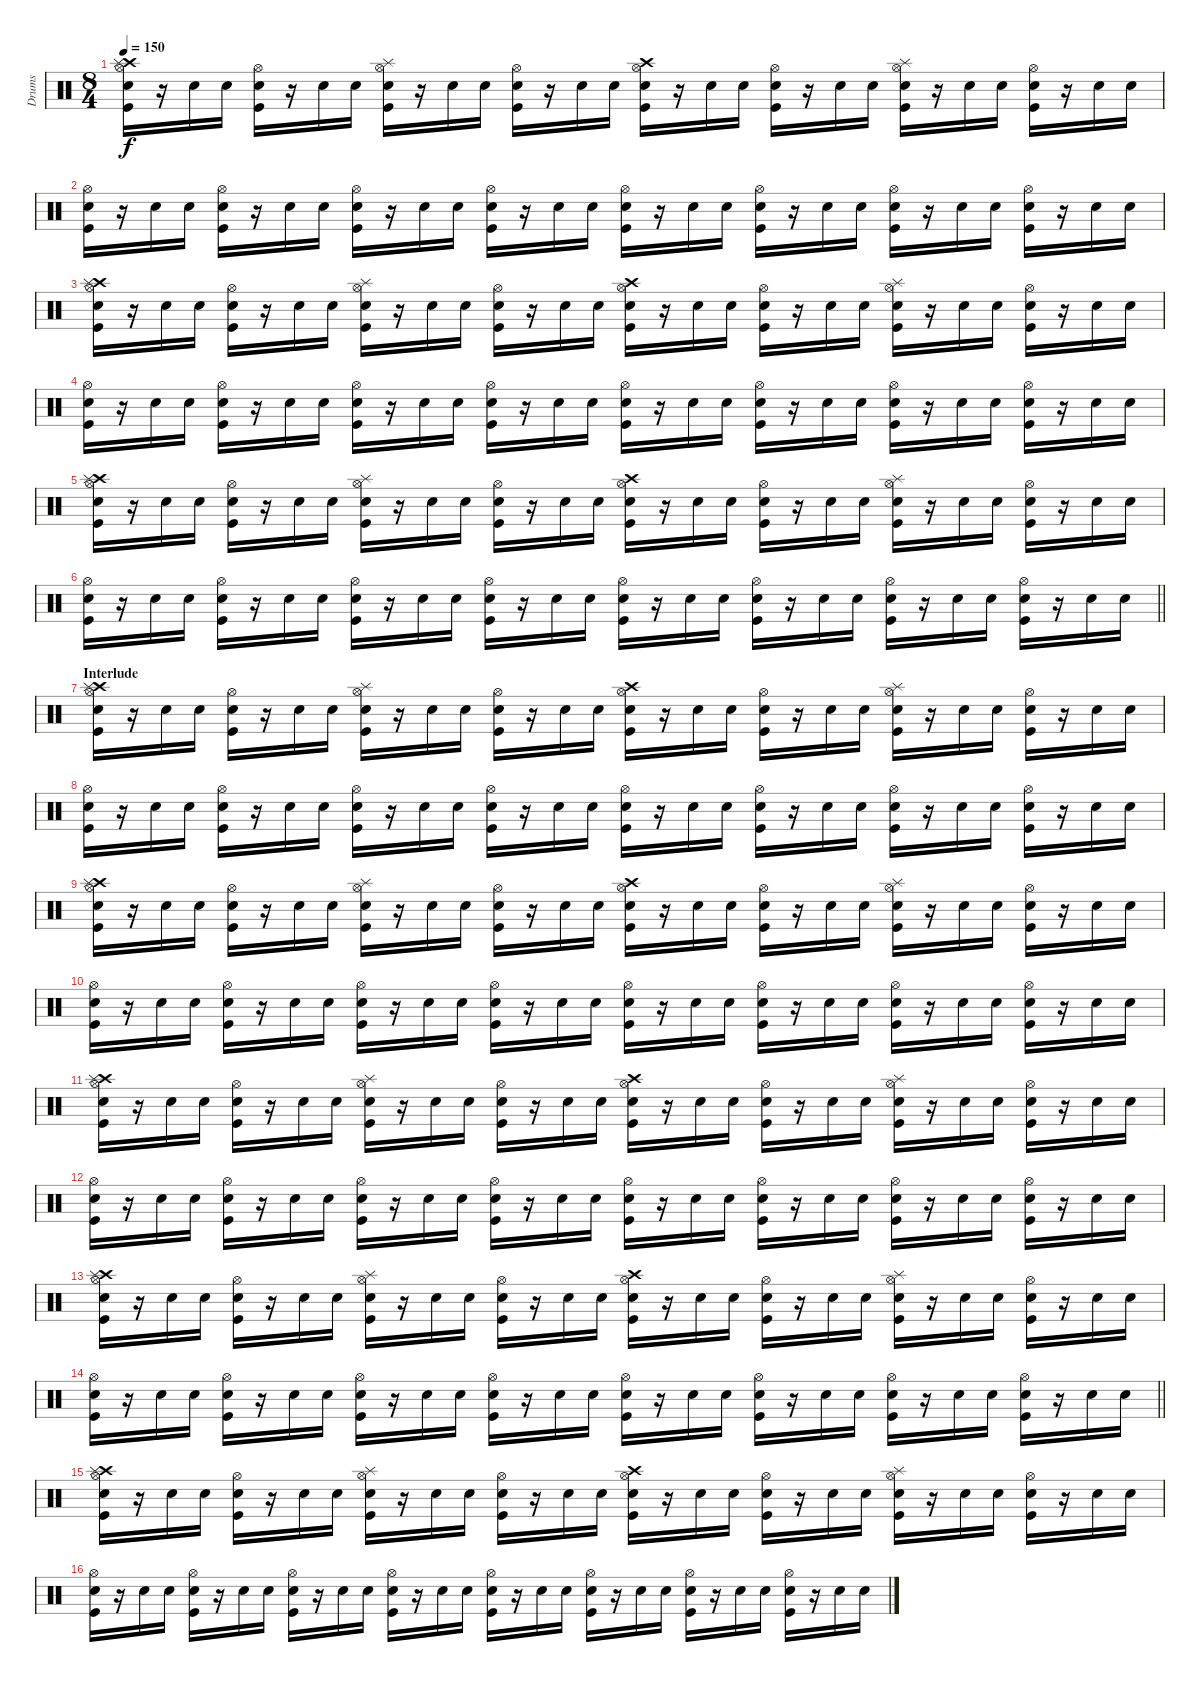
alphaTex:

\track ("Drums" "Drums") {instrument percussion}
\staff {score}
\articulation defaults
\ts (8 4)
\tempo 150
\clef neutral
\ks c
("Crash high (hit)" "Splash (hit)" "Hi-Hat (open)" "Electric Snare (hit)" "Kick (hit)").16{dy f} r.16 "Electric Snare (hit)".16 "Electric Snare (hit)".16 ("Hi-Hat (open)" "Electric Snare (hit)" "Kick (hit)").16 r.16 "Electric Snare (hit)".16 "Electric Snare (hit)".16 ("Splash (hit)" "Hi-Hat (open)" "Electric Snare (hit)" "Kick (hit)").16 r.16 "Electric Snare (hit)".16 "Electric Snare (hit)".16 ("Hi-Hat (open)" "Electric Snare (hit)" "Kick (hit)").16 r.16 "Electric Snare (hit)".16 "Electric Snare (hit)".16 ("Crash high (hit)" "Hi-Hat (open)" "Electric Snare (hit)" "Kick (hit)").16 r.16 "Electric Snare (hit)".16 "Electric Snare (hit)".16 ("Hi-Hat (open)" "Electric Snare (hit)" "Kick (hit)").16 r.16 "Electric Snare (hit)".16 "Electric Snare (hit)".16 ("Splash (hit)" "Hi-Hat (open)" "Electric Snare (hit)" "Kick (hit)").16 r.16 "Electric Snare (hit)".16 "Electric Snare (hit)".16 ("Hi-Hat (open)" "Electric Snare (hit)" "Kick (hit)").16 r.16 "Electric Snare (hit)".16 "Electric Snare (hit)".16 |
("Hi-Hat (open)" "Electric Snare (hit)" "Kick (hit)").16 r.16 "Electric Snare (hit)".16 "Electric Snare (hit)".16 ("Hi-Hat (open)" "Electric Snare (hit)" "Kick (hit)").16 r.16 "Electric Snare (hit)".16 "Electric Snare (hit)".16 ("Hi-Hat (open)" "Electric Snare (hit)" "Kick (hit)").16 r.16 "Electric Snare (hit)".16 "Electric Snare (hit)".16 ("Hi-Hat (open)" "Electric Snare (hit)" "Kick (hit)").16 r.16 "Electric Snare (hit)".16 "Electric Snare (hit)".16 ("Hi-Hat (open)" "Electric Snare (hit)" "Kick (hit)").16 r.16 "Electric Snare (hit)".16 "Electric Snare (hit)".16 ("Hi-Hat (open)" "Electric Snare (hit)" "Kick (hit)").16 r.16 "Electric Snare (hit)".16 "Electric Snare (hit)".16 ("Hi-Hat (open)" "Electric Snare (hit)" "Kick (hit)").16 r.16 "Electric Snare (hit)".16 "Electric Snare (hit)".16 ("Hi-Hat (open)" "Electric Snare (hit)" "Kick (hit)").16 r.16 "Electric Snare (hit)".16 "Electric Snare (hit)".16 |
("Crash high (hit)" "Splash (hit)" "Hi-Hat (open)" "Electric Snare (hit)" "Kick (hit)").16 r.16 "Electric Snare (hit)".16 "Electric Snare (hit)".16 ("Hi-Hat (open)" "Electric Snare (hit)" "Kick (hit)").16 r.16 "Electric Snare (hit)".16 "Electric Snare (hit)".16 ("Splash (hit)" "Hi-Hat (open)" "Electric Snare (hit)" "Kick (hit)").16 r.16 "Electric Snare (hit)".16 "Electric Snare (hit)".16 ("Hi-Hat (open)" "Electric Snare (hit)" "Kick (hit)").16 r.16 "Electric Snare (hit)".16 "Electric Snare (hit)".16 ("Crash high (hit)" "Hi-Hat (open)" "Electric Snare (hit)" "Kick (hit)").16 r.16 "Electric Snare (hit)".16 "Electric Snare (hit)".16 ("Hi-Hat (open)" "Electric Snare (hit)" "Kick (hit)").16 r.16 "Electric Snare (hit)".16 "Electric Snare (hit)".16 ("Splash (hit)" "Hi-Hat (open)" "Electric Snare (hit)" "Kick (hit)").16 r.16 "Electric Snare (hit)".16 "Electric Snare (hit)".16 ("Hi-Hat (open)" "Electric Snare (hit)" "Kick (hit)").16 r.16 "Electric Snare (hit)".16 "Electric Snare (hit)".16 |
("Hi-Hat (open)" "Electric Snare (hit)" "Kick (hit)").16 r.16 "Electric Snare (hit)".16 "Electric Snare (hit)".16 ("Hi-Hat (open)" "Electric Snare (hit)" "Kick (hit)").16 r.16 "Electric Snare (hit)".16 "Electric Snare (hit)".16 ("Hi-Hat (open)" "Electric Snare (hit)" "Kick (hit)").16 r.16 "Electric Snare (hit)".16 "Electric Snare (hit)".16 ("Hi-Hat (open)" "Electric Snare (hit)" "Kick (hit)").16 r.16 "Electric Snare (hit)".16 "Electric Snare (hit)".16 ("Hi-Hat (open)" "Electric Snare (hit)" "Kick (hit)").16 r.16 "Electric Snare (hit)".16 "Electric Snare (hit)".16 ("Hi-Hat (open)" "Electric Snare (hit)" "Kick (hit)").16 r.16 "Electric Snare (hit)".16 "Electric Snare (hit)".16 ("Hi-Hat (open)" "Electric Snare (hit)" "Kick (hit)").16 r.16 "Electric Snare (hit)".16 "Electric Snare (hit)".16 ("Hi-Hat (open)" "Electric Snare (hit)" "Kick (hit)").16 r.16 "Electric Snare (hit)".16 "Electric Snare (hit)".16 |
("Crash high (hit)" "Splash (hit)" "Hi-Hat (open)" "Electric Snare (hit)" "Kick (hit)").16 r.16 "Electric Snare (hit)".16 "Electric Snare (hit)".16 ("Hi-Hat (open)" "Electric Snare (hit)" "Kick (hit)").16 r.16 "Electric Snare (hit)".16 "Electric Snare (hit)".16 ("Splash (hit)" "Hi-Hat (open)" "Electric Snare (hit)" "Kick (hit)").16 r.16 "Electric Snare (hit)".16 "Electric Snare (hit)".16 ("Hi-Hat (open)" "Electric Snare (hit)" "Kick (hit)").16 r.16 "Electric Snare (hit)".16 "Electric Snare (hit)".16 ("Crash high (hit)" "Hi-Hat (open)" "Electric Snare (hit)" "Kick (hit)").16 r.16 "Electric Snare (hit)".16 "Electric Snare (hit)".16 ("Hi-Hat (open)" "Electric Snare (hit)" "Kick (hit)").16 r.16 "Electric Snare (hit)".16 "Electric Snare (hit)".16 ("Splash (hit)" "Hi-Hat (open)" "Electric Snare (hit)" "Kick (hit)").16 r.16 "Electric Snare (hit)".16 "Electric Snare (hit)".16 ("Hi-Hat (open)" "Electric Snare (hit)" "Kick (hit)").16 r.16 "Electric Snare (hit)".16 "Electric Snare (hit)".16 |
\barLineRight lightlight
("Hi-Hat (open)" "Electric Snare (hit)" "Kick (hit)").16 r.16 "Electric Snare (hit)".16 "Electric Snare (hit)".16 ("Hi-Hat (open)" "Electric Snare (hit)" "Kick (hit)").16 r.16 "Electric Snare (hit)".16 "Electric Snare (hit)".16 ("Hi-Hat (open)" "Electric Snare (hit)" "Kick (hit)").16 r.16 "Electric Snare (hit)".16 "Electric Snare (hit)".16 ("Hi-Hat (open)" "Electric Snare (hit)" "Kick (hit)").16 r.16 "Electric Snare (hit)".16 "Electric Snare (hit)".16 ("Hi-Hat (open)" "Electric Snare (hit)" "Kick (hit)").16 r.16 "Electric Snare (hit)".16 "Electric Snare (hit)".16 ("Hi-Hat (open)" "Electric Snare (hit)" "Kick (hit)").16 r.16 "Electric Snare (hit)".16 "Electric Snare (hit)".16 ("Hi-Hat (open)" "Electric Snare (hit)" "Kick (hit)").16 r.16 "Electric Snare (hit)".16 "Electric Snare (hit)".16 ("Hi-Hat (open)" "Electric Snare (hit)" "Kick (hit)").16 r.16 "Electric Snare (hit)".16 "Electric Snare (hit)".16 |
\section ("" "Interlude")
("Crash high (hit)" "Splash (hit)" "Hi-Hat (open)" "Electric Snare (hit)" "Kick (hit)").16 r.16 "Electric Snare (hit)".16 "Electric Snare (hit)".16 ("Hi-Hat (open)" "Electric Snare (hit)" "Kick (hit)").16 r.16 "Electric Snare (hit)".16 "Electric Snare (hit)".16 ("Splash (hit)" "Hi-Hat (open)" "Electric Snare (hit)" "Kick (hit)").16 r.16 "Electric Snare (hit)".16 "Electric Snare (hit)".16 ("Hi-Hat (open)" "Electric Snare (hit)" "Kick (hit)").16 r.16 "Electric Snare (hit)".16 "Electric Snare (hit)".16 ("Crash high (hit)" "Hi-Hat (open)" "Electric Snare (hit)" "Kick (hit)").16 r.16 "Electric Snare (hit)".16 "Electric Snare (hit)".16 ("Hi-Hat (open)" "Electric Snare (hit)" "Kick (hit)").16 r.16 "Electric Snare (hit)".16 "Electric Snare (hit)".16 ("Splash (hit)" "Hi-Hat (open)" "Electric Snare (hit)" "Kick (hit)").16 r.16 "Electric Snare (hit)".16 "Electric Snare (hit)".16 ("Hi-Hat (open)" "Electric Snare (hit)" "Kick (hit)").16 r.16 "Electric Snare (hit)".16 "Electric Snare (hit)".16 |
("Hi-Hat (open)" "Electric Snare (hit)" "Kick (hit)").16 r.16 "Electric Snare (hit)".16 "Electric Snare (hit)".16 ("Hi-Hat (open)" "Electric Snare (hit)" "Kick (hit)").16 r.16 "Electric Snare (hit)".16 "Electric Snare (hit)".16 ("Hi-Hat (open)" "Electric Snare (hit)" "Kick (hit)").16 r.16 "Electric Snare (hit)".16 "Electric Snare (hit)".16 ("Hi-Hat (open)" "Electric Snare (hit)" "Kick (hit)").16 r.16 "Electric Snare (hit)".16 "Electric Snare (hit)".16 ("Hi-Hat (open)" "Electric Snare (hit)" "Kick (hit)").16 r.16 "Electric Snare (hit)".16 "Electric Snare (hit)".16 ("Hi-Hat (open)" "Electric Snare (hit)" "Kick (hit)").16 r.16 "Electric Snare (hit)".16 "Electric Snare (hit)".16 ("Hi-Hat (open)" "Electric Snare (hit)" "Kick (hit)").16 r.16 "Electric Snare (hit)".16 "Electric Snare (hit)".16 ("Hi-Hat (open)" "Electric Snare (hit)" "Kick (hit)").16 r.16 "Electric Snare (hit)".16 "Electric Snare (hit)".16 |
("Crash high (hit)" "Splash (hit)" "Hi-Hat (open)" "Electric Snare (hit)" "Kick (hit)").16 r.16 "Electric Snare (hit)".16 "Electric Snare (hit)".16 ("Hi-Hat (open)" "Electric Snare (hit)" "Kick (hit)").16 r.16 "Electric Snare (hit)".16 "Electric Snare (hit)".16 ("Splash (hit)" "Hi-Hat (open)" "Electric Snare (hit)" "Kick (hit)").16 r.16 "Electric Snare (hit)".16 "Electric Snare (hit)".16 ("Hi-Hat (open)" "Electric Snare (hit)" "Kick (hit)").16 r.16 "Electric Snare (hit)".16 "Electric Snare (hit)".16 ("Crash high (hit)" "Hi-Hat (open)" "Electric Snare (hit)" "Kick (hit)").16 r.16 "Electric Snare (hit)".16 "Electric Snare (hit)".16 ("Hi-Hat (open)" "Electric Snare (hit)" "Kick (hit)").16 r.16 "Electric Snare (hit)".16 "Electric Snare (hit)".16 ("Splash (hit)" "Hi-Hat (open)" "Electric Snare (hit)" "Kick (hit)").16 r.16 "Electric Snare (hit)".16 "Electric Snare (hit)".16 ("Hi-Hat (open)" "Electric Snare (hit)" "Kick (hit)").16 r.16 "Electric Snare (hit)".16 "Electric Snare (hit)".16 |
("Hi-Hat (open)" "Electric Snare (hit)" "Kick (hit)").16 r.16 "Electric Snare (hit)".16 "Electric Snare (hit)".16 ("Hi-Hat (open)" "Electric Snare (hit)" "Kick (hit)").16 r.16 "Electric Snare (hit)".16 "Electric Snare (hit)".16 ("Hi-Hat (open)" "Electric Snare (hit)" "Kick (hit)").16 r.16 "Electric Snare (hit)".16 "Electric Snare (hit)".16 ("Hi-Hat (open)" "Electric Snare (hit)" "Kick (hit)").16 r.16 "Electric Snare (hit)".16 "Electric Snare (hit)".16 ("Hi-Hat (open)" "Electric Snare (hit)" "Kick (hit)").16 r.16 "Electric Snare (hit)".16 "Electric Snare (hit)".16 ("Hi-Hat (open)" "Electric Snare (hit)" "Kick (hit)").16 r.16 "Electric Snare (hit)".16 "Electric Snare (hit)".16 ("Hi-Hat (open)" "Electric Snare (hit)" "Kick (hit)").16 r.16 "Electric Snare (hit)".16 "Electric Snare (hit)".16 ("Hi-Hat (open)" "Electric Snare (hit)" "Kick (hit)").16 r.16 "Electric Snare (hit)".16 "Electric Snare (hit)".16 |
("Crash high (hit)" "Splash (hit)" "Hi-Hat (open)" "Electric Snare (hit)" "Kick (hit)").16 r.16 "Electric Snare (hit)".16 "Electric Snare (hit)".16 ("Hi-Hat (open)" "Electric Snare (hit)" "Kick (hit)").16 r.16 "Electric Snare (hit)".16 "Electric Snare (hit)".16 ("Splash (hit)" "Hi-Hat (open)" "Electric Snare (hit)" "Kick (hit)").16 r.16 "Electric Snare (hit)".16 "Electric Snare (hit)".16 ("Hi-Hat (open)" "Electric Snare (hit)" "Kick (hit)").16 r.16 "Electric Snare (hit)".16 "Electric Snare (hit)".16 ("Crash high (hit)" "Hi-Hat (open)" "Electric Snare (hit)" "Kick (hit)").16 r.16 "Electric Snare (hit)".16 "Electric Snare (hit)".16 ("Hi-Hat (open)" "Electric Snare (hit)" "Kick (hit)").16 r.16 "Electric Snare (hit)".16 "Electric Snare (hit)".16 ("Splash (hit)" "Hi-Hat (open)" "Electric Snare (hit)" "Kick (hit)").16 r.16 "Electric Snare (hit)".16 "Electric Snare (hit)".16 ("Hi-Hat (open)" "Electric Snare (hit)" "Kick (hit)").16 r.16 "Electric Snare (hit)".16 "Electric Snare (hit)".16 |
("Hi-Hat (open)" "Electric Snare (hit)" "Kick (hit)").16 r.16 "Electric Snare (hit)".16 "Electric Snare (hit)".16 ("Hi-Hat (open)" "Electric Snare (hit)" "Kick (hit)").16 r.16 "Electric Snare (hit)".16 "Electric Snare (hit)".16 ("Hi-Hat (open)" "Electric Snare (hit)" "Kick (hit)").16 r.16 "Electric Snare (hit)".16 "Electric Snare (hit)".16 ("Hi-Hat (open)" "Electric Snare (hit)" "Kick (hit)").16 r.16 "Electric Snare (hit)".16 "Electric Snare (hit)".16 ("Hi-Hat (open)" "Electric Snare (hit)" "Kick (hit)").16 r.16 "Electric Snare (hit)".16 "Electric Snare (hit)".16 ("Hi-Hat (open)" "Electric Snare (hit)" "Kick (hit)").16 r.16 "Electric Snare (hit)".16 "Electric Snare (hit)".16 ("Hi-Hat (open)" "Electric Snare (hit)" "Kick (hit)").16 r.16 "Electric Snare (hit)".16 "Electric Snare (hit)".16 ("Hi-Hat (open)" "Electric Snare (hit)" "Kick (hit)").16 r.16 "Electric Snare (hit)".16 "Electric Snare (hit)".16 |
("Crash high (hit)" "Splash (hit)" "Hi-Hat (open)" "Electric Snare (hit)" "Kick (hit)").16 r.16 "Electric Snare (hit)".16 "Electric Snare (hit)".16 ("Hi-Hat (open)" "Electric Snare (hit)" "Kick (hit)").16 r.16 "Electric Snare (hit)".16 "Electric Snare (hit)".16 ("Splash (hit)" "Hi-Hat (open)" "Electric Snare (hit)" "Kick (hit)").16 r.16 "Electric Snare (hit)".16 "Electric Snare (hit)".16 ("Hi-Hat (open)" "Electric Snare (hit)" "Kick (hit)").16 r.16 "Electric Snare (hit)".16 "Electric Snare (hit)".16 ("Crash high (hit)" "Hi-Hat (open)" "Electric Snare (hit)" "Kick (hit)").16 r.16 "Electric Snare (hit)".16 "Electric Snare (hit)".16 ("Hi-Hat (open)" "Electric Snare (hit)" "Kick (hit)").16 r.16 "Electric Snare (hit)".16 "Electric Snare (hit)".16 ("Splash (hit)" "Hi-Hat (open)" "Electric Snare (hit)" "Kick (hit)").16 r.16 "Electric Snare (hit)".16 "Electric Snare (hit)".16 ("Hi-Hat (open)" "Electric Snare (hit)" "Kick (hit)").16 r.16 "Electric Snare (hit)".16 "Electric Snare (hit)".16 |
\barLineRight lightlight
("Hi-Hat (open)" "Electric Snare (hit)" "Kick (hit)").16 r.16 "Electric Snare (hit)".16 "Electric Snare (hit)".16 ("Hi-Hat (open)" "Electric Snare (hit)" "Kick (hit)").16 r.16 "Electric Snare (hit)".16 "Electric Snare (hit)".16 ("Hi-Hat (open)" "Electric Snare (hit)" "Kick (hit)").16 r.16 "Electric Snare (hit)".16 "Electric Snare (hit)".16 ("Hi-Hat (open)" "Electric Snare (hit)" "Kick (hit)").16 r.16 "Electric Snare (hit)".16 "Electric Snare (hit)".16 ("Hi-Hat (open)" "Electric Snare (hit)" "Kick (hit)").16 r.16 "Electric Snare (hit)".16 "Electric Snare (hit)".16 ("Hi-Hat (open)" "Electric Snare (hit)" "Kick (hit)").16 r.16 "Electric Snare (hit)".16 "Electric Snare (hit)".16 ("Hi-Hat (open)" "Electric Snare (hit)" "Kick (hit)").16 r.16 "Electric Snare (hit)".16 "Electric Snare (hit)".16 ("Hi-Hat (open)" "Electric Snare (hit)" "Kick (hit)").16 r.16 "Electric Snare (hit)".16 "Electric Snare (hit)".16 |
("Crash high (hit)" "Splash (hit)" "Hi-Hat (open)" "Electric Snare (hit)" "Kick (hit)").16 r.16 "Electric Snare (hit)".16 "Electric Snare (hit)".16 ("Hi-Hat (open)" "Electric Snare (hit)" "Kick (hit)").16 r.16 "Electric Snare (hit)".16 "Electric Snare (hit)".16 ("Splash (hit)" "Hi-Hat (open)" "Electric Snare (hit)" "Kick (hit)").16 r.16 "Electric Snare (hit)".16 "Electric Snare (hit)".16 ("Hi-Hat (open)" "Electric Snare (hit)" "Kick (hit)").16 r.16 "Electric Snare (hit)".16 "Electric Snare (hit)".16 ("Crash high (hit)" "Hi-Hat (open)" "Electric Snare (hit)" "Kick (hit)").16 r.16 "Electric Snare (hit)".16 "Electric Snare (hit)".16 ("Hi-Hat (open)" "Electric Snare (hit)" "Kick (hit)").16 r.16 "Electric Snare (hit)".16 "Electric Snare (hit)".16 ("Splash (hit)" "Hi-Hat (open)" "Electric Snare (hit)" "Kick (hit)").16 r.16 "Electric Snare (hit)".16 "Electric Snare (hit)".16 ("Hi-Hat (open)" "Electric Snare (hit)" "Kick (hit)").16 r.16 "Electric Snare (hit)".16 "Electric Snare (hit)".16 |
("Hi-Hat (open)" "Electric Snare (hit)" "Kick (hit)").16 r.16 "Electric Snare (hit)".16 "Electric Snare (hit)".16 ("Hi-Hat (open)" "Electric Snare (hit)" "Kick (hit)").16 r.16 "Electric Snare (hit)".16 "Electric Snare (hit)".16 ("Hi-Hat (open)" "Electric Snare (hit)" "Kick (hit)").16 r.16 "Electric Snare (hit)".16 "Electric Snare (hit)".16 ("Hi-Hat (open)" "Electric Snare (hit)" "Kick (hit)").16 r.16 "Electric Snare (hit)".16 "Electric Snare (hit)".16 ("Hi-Hat (open)" "Electric Snare (hit)" "Kick (hit)").16 r.16 "Electric Snare (hit)".16 "Electric Snare (hit)".16 ("Hi-Hat (open)" "Electric Snare (hit)" "Kick (hit)").16 r.16 "Electric Snare (hit)".16 "Electric Snare (hit)".16 ("Hi-Hat (open)" "Electric Snare (hit)" "Kick (hit)").16 r.16 "Electric Snare (hit)".16 "Electric Snare (hit)".16 ("Hi-Hat (open)" "Electric Snare (hit)" "Kick (hit)").16 r.16 "Electric Snare (hit)".16 "Electric Snare (hit)".16
